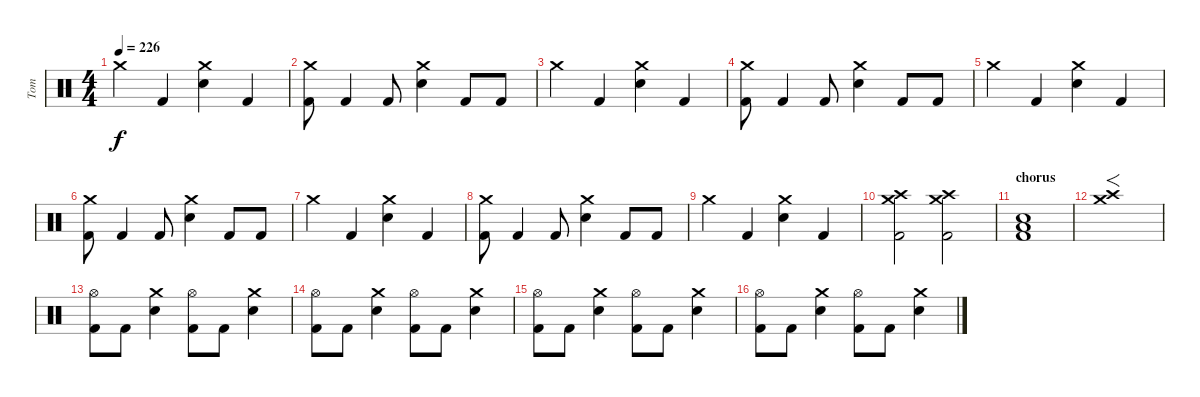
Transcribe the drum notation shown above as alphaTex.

\track ("Tom" "Tom") {instrument percussion}
\staff {score}
\articulation defaults
\ts (4 4)
\tempo 226
\clef neutral
\ks c "Crash medium (hit)".4{dy f} "Kick (hit) 2".4
("Crash medium (hit)" "Electric Snare (hit)").4 "Kick (hit) 2".4 |
("Crash medium (hit)" "Kick (hit) 2").8 "Kick (hit) 2".4 "Kick (hit) 2".8 ("Crash medium (hit)" "Electric Snare (hit)").4 "Kick (hit) 2".8 "Kick (hit) 2".8 |
"Crash medium (hit)".4 "Kick (hit) 2".4 ("Crash medium (hit)" "Electric Snare (hit)").4 "Kick (hit) 2".4 |
("Crash medium (hit)" "Kick (hit) 2").8 "Kick (hit) 2".4 "Kick (hit) 2".8 ("Crash medium (hit)" "Electric Snare (hit)").4 "Kick (hit) 2".8 "Kick (hit) 2".8 |
"Crash medium (hit)".4 "Kick (hit) 2".4 ("Crash medium (hit)" "Electric Snare (hit)").4 "Kick (hit) 2".4 |
("Crash medium (hit)" "Kick (hit) 2").8 "Kick (hit) 2".4 "Kick (hit) 2".8 ("Crash medium (hit)" "Electric Snare (hit)").4 "Kick (hit) 2".8 "Kick (hit) 2".8 |
"Crash medium (hit)".4 "Kick (hit) 2".4 ("Crash medium (hit)" "Electric Snare (hit)").4 "Kick (hit) 2".4 |
("Crash medium (hit)" "Kick (hit) 2").8 "Kick (hit) 2".4 "Kick (hit) 2".8 ("Crash medium (hit)" "Electric Snare (hit)").4 "Kick (hit) 2".8 "Kick (hit) 2".8 |
"Crash medium (hit)".4 "Kick (hit) 2".4 ("Crash medium (hit)" "Electric Snare (hit)").4 "Kick (hit) 2".4 |
("Crash high (hit)" "Crash medium (hit)" "Kick (hit) 2").2 ("Crash high (hit)" "Crash medium (hit)" "Kick (hit) 2").2 |
\section ("" "chorus")
("Kick (hit) 2" "Low Tom (hit)" "Electric Snare (hit)").1 |
("Crash high (hit)" "Crash medium (hit)").1{f} |
("Hi-Hat (open)" "Kick (hit) 2").8 "Kick (hit) 2".8 ("Crash medium (hit)" "Electric Snare (hit)").4 ("Hi-Hat (open)" "Kick (hit) 2").8 "Kick (hit) 2".8 ("Crash medium (hit)" "Electric Snare (hit)").4 |
("Hi-Hat (open)" "Kick (hit) 2").8 "Kick (hit) 2".8 ("Crash medium (hit)" "Electric Snare (hit)").4 ("Hi-Hat (open)" "Kick (hit) 2").8 "Kick (hit) 2".8 ("Crash medium (hit)" "Electric Snare (hit)").4 |
("Hi-Hat (open)" "Kick (hit) 2").8 "Kick (hit) 2".8 ("Crash medium (hit)" "Electric Snare (hit)").4 ("Hi-Hat (open)" "Kick (hit) 2").8 "Kick (hit) 2".8 ("Crash medium (hit)" "Electric Snare (hit)").4 |
("Hi-Hat (open)" "Kick (hit) 2").8 "Kick (hit) 2".8 ("Crash medium (hit)" "Electric Snare (hit)").4 ("Hi-Hat (open)" "Kick (hit) 2").8 "Kick (hit) 2".8 ("Crash medium (hit)" "Electric Snare (hit)").4
